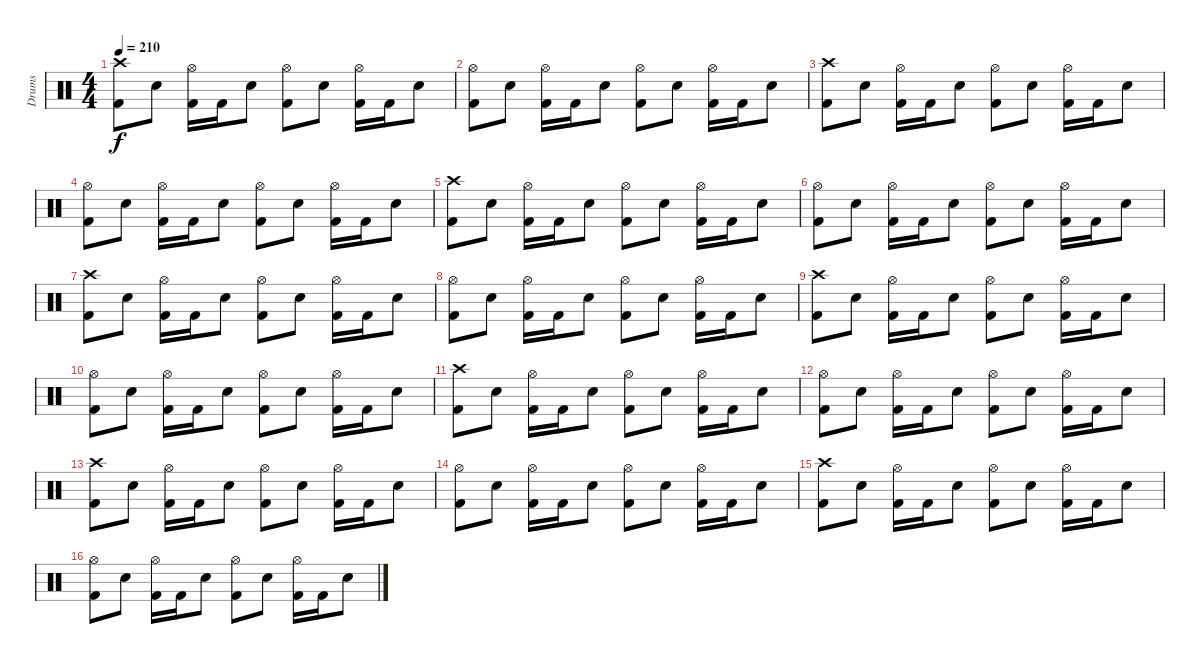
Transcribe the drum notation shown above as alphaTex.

\track ("Drums" "Drums") {instrument percussion}
\staff {score}
\articulation defaults
\ts (4 4)
\tempo 210
\clef neutral
\ks c
("Crash high (hit)" "Kick (hit) 2").8{dy f} "Snare (hit) 2".8 ("Hi-Hat (open)" "Kick (hit) 2").16 "Kick (hit) 2".16 "Snare (hit) 2".8 ("Hi-Hat (open)" "Kick (hit) 2").8 "Snare (hit) 2".8 ("Hi-Hat (open)" "Kick (hit) 2").16 "Kick (hit) 2".16 "Snare (hit) 2".8 |
("Hi-Hat (open)" "Kick (hit) 2").8 "Snare (hit) 2".8 ("Hi-Hat (open)" "Kick (hit) 2").16 "Kick (hit) 2".16 "Snare (hit) 2".8 ("Hi-Hat (open)" "Kick (hit) 2").8 "Snare (hit) 2".8 ("Hi-Hat (open)" "Kick (hit) 2").16 "Kick (hit) 2".16 "Snare (hit) 2".8 |
("Crash high (hit)" "Kick (hit) 2").8 "Snare (hit) 2".8 ("Hi-Hat (open)" "Kick (hit) 2").16 "Kick (hit) 2".16 "Snare (hit) 2".8 ("Hi-Hat (open)" "Kick (hit) 2").8 "Snare (hit) 2".8 ("Hi-Hat (open)" "Kick (hit) 2").16 "Kick (hit) 2".16 "Snare (hit) 2".8 |
("Hi-Hat (open)" "Kick (hit) 2").8 "Snare (hit) 2".8 ("Hi-Hat (open)" "Kick (hit) 2").16 "Kick (hit) 2".16 "Snare (hit) 2".8 ("Hi-Hat (open)" "Kick (hit) 2").8 "Snare (hit) 2".8 ("Hi-Hat (open)" "Kick (hit) 2").16 "Kick (hit) 2".16 "Snare (hit) 2".8 |
("Crash high (hit)" "Kick (hit) 2").8 "Snare (hit) 2".8 ("Hi-Hat (open)" "Kick (hit) 2").16 "Kick (hit) 2".16 "Snare (hit) 2".8 ("Hi-Hat (open)" "Kick (hit) 2").8 "Snare (hit) 2".8 ("Hi-Hat (open)" "Kick (hit) 2").16 "Kick (hit) 2".16 "Snare (hit) 2".8 |
("Hi-Hat (open)" "Kick (hit) 2").8 "Snare (hit) 2".8 ("Hi-Hat (open)" "Kick (hit) 2").16 "Kick (hit) 2".16 "Snare (hit) 2".8 ("Hi-Hat (open)" "Kick (hit) 2").8 "Snare (hit) 2".8 ("Hi-Hat (open)" "Kick (hit) 2").16 "Kick (hit) 2".16 "Snare (hit) 2".8 |
("Crash high (hit)" "Kick (hit) 2").8 "Snare (hit) 2".8 ("Hi-Hat (open)" "Kick (hit) 2").16 "Kick (hit) 2".16 "Snare (hit) 2".8 ("Hi-Hat (open)" "Kick (hit) 2").8 "Snare (hit) 2".8 ("Hi-Hat (open)" "Kick (hit) 2").16 "Kick (hit) 2".16 "Snare (hit) 2".8 |
("Hi-Hat (open)" "Kick (hit) 2").8 "Snare (hit) 2".8 ("Hi-Hat (open)" "Kick (hit) 2").16 "Kick (hit) 2".16 "Snare (hit) 2".8 ("Hi-Hat (open)" "Kick (hit) 2").8 "Snare (hit) 2".8 ("Hi-Hat (open)" "Kick (hit) 2").16 "Kick (hit) 2".16 "Snare (hit) 2".8 |
("Crash high (hit)" "Kick (hit) 2").8 "Snare (hit) 2".8 ("Hi-Hat (open)" "Kick (hit) 2").16 "Kick (hit) 2".16 "Snare (hit) 2".8 ("Hi-Hat (open)" "Kick (hit) 2").8 "Snare (hit) 2".8 ("Hi-Hat (open)" "Kick (hit) 2").16 "Kick (hit) 2".16 "Snare (hit) 2".8 |
("Hi-Hat (open)" "Kick (hit) 2").8 "Snare (hit) 2".8 ("Hi-Hat (open)" "Kick (hit) 2").16 "Kick (hit) 2".16 "Snare (hit) 2".8 ("Hi-Hat (open)" "Kick (hit) 2").8 "Snare (hit) 2".8 ("Hi-Hat (open)" "Kick (hit) 2").16 "Kick (hit) 2".16 "Snare (hit) 2".8 |
("Crash high (hit)" "Kick (hit) 2").8 "Snare (hit) 2".8 ("Hi-Hat (open)" "Kick (hit) 2").16 "Kick (hit) 2".16 "Snare (hit) 2".8 ("Hi-Hat (open)" "Kick (hit) 2").8 "Snare (hit) 2".8 ("Hi-Hat (open)" "Kick (hit) 2").16 "Kick (hit) 2".16 "Snare (hit) 2".8 |
("Hi-Hat (open)" "Kick (hit) 2").8 "Snare (hit) 2".8 ("Hi-Hat (open)" "Kick (hit) 2").16 "Kick (hit) 2".16 "Snare (hit) 2".8 ("Hi-Hat (open)" "Kick (hit) 2").8 "Snare (hit) 2".8 ("Hi-Hat (open)" "Kick (hit) 2").16 "Kick (hit) 2".16 "Snare (hit) 2".8 |
("Crash high (hit)" "Kick (hit) 2").8 "Snare (hit) 2".8 ("Hi-Hat (open)" "Kick (hit) 2").16 "Kick (hit) 2".16 "Snare (hit) 2".8 ("Hi-Hat (open)" "Kick (hit) 2").8 "Snare (hit) 2".8 ("Hi-Hat (open)" "Kick (hit) 2").16 "Kick (hit) 2".16 "Snare (hit) 2".8 |
("Hi-Hat (open)" "Kick (hit) 2").8 "Snare (hit) 2".8 ("Hi-Hat (open)" "Kick (hit) 2").16 "Kick (hit) 2".16 "Snare (hit) 2".8 ("Hi-Hat (open)" "Kick (hit) 2").8 "Snare (hit) 2".8 ("Hi-Hat (open)" "Kick (hit) 2").16 "Kick (hit) 2".16 "Snare (hit) 2".8 |
("Crash high (hit)" "Kick (hit) 2").8 "Snare (hit) 2".8 ("Hi-Hat (open)" "Kick (hit) 2").16 "Kick (hit) 2".16 "Snare (hit) 2".8 ("Hi-Hat (open)" "Kick (hit) 2").8 "Snare (hit) 2".8 ("Hi-Hat (open)" "Kick (hit) 2").16 "Kick (hit) 2".16 "Snare (hit) 2".8 |
("Hi-Hat (open)" "Kick (hit) 2").8 "Snare (hit) 2".8 ("Hi-Hat (open)" "Kick (hit) 2").16 "Kick (hit) 2".16 "Snare (hit) 2".8 ("Hi-Hat (open)" "Kick (hit) 2").8 "Snare (hit) 2".8 ("Hi-Hat (open)" "Kick (hit) 2").16 "Kick (hit) 2".16 "Snare (hit) 2".8
